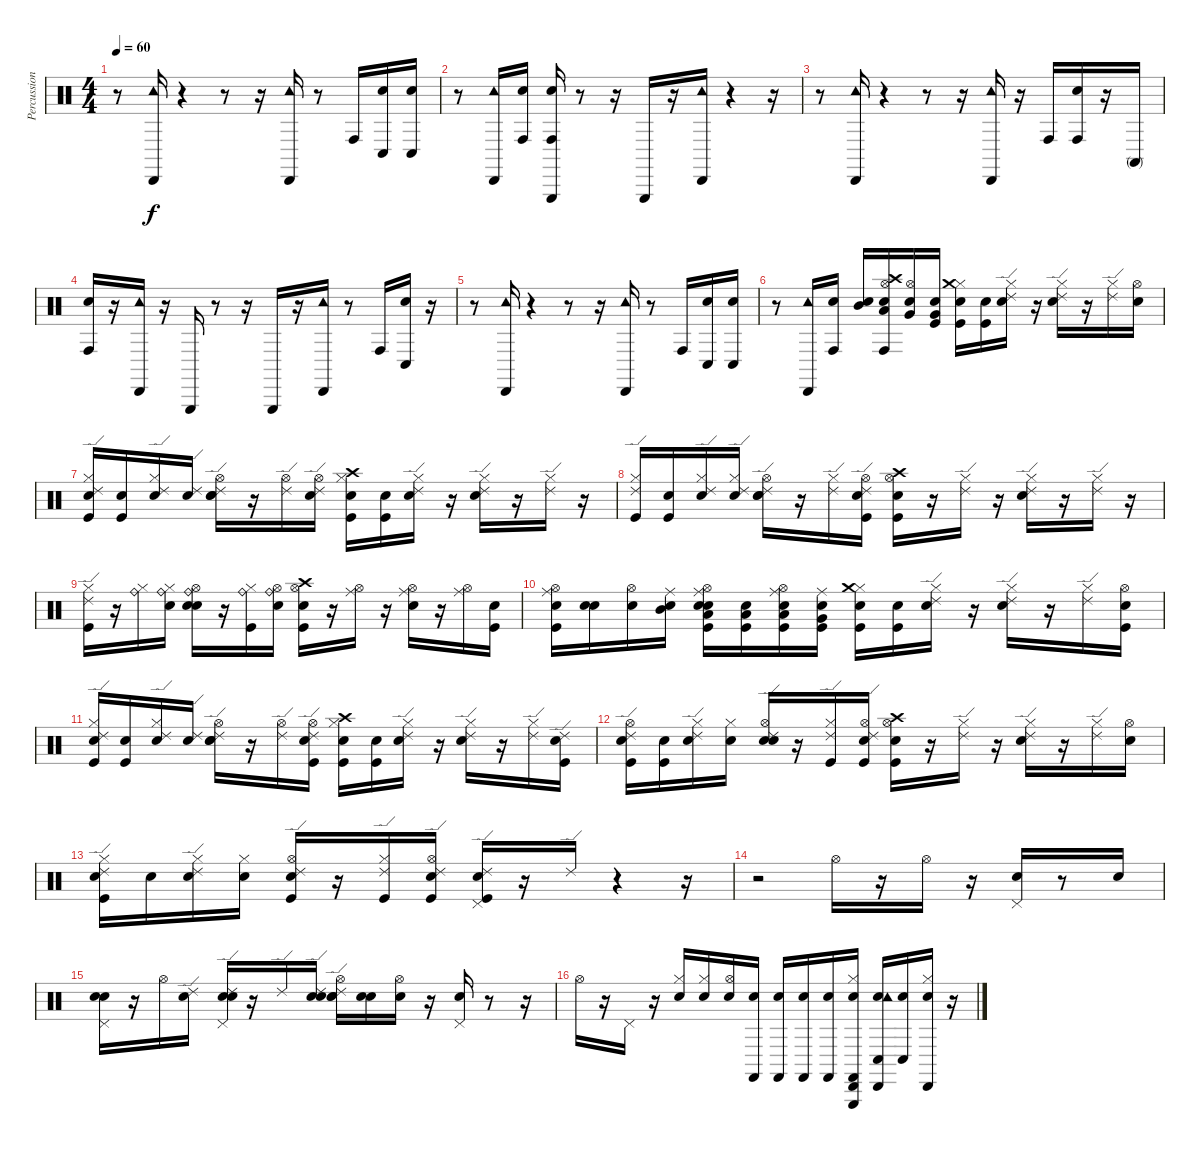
\track ("Percussions" "Percussion") {instrument percussion}
\staff {score}
\articulation defaults
\ts (4 4)
\tempo 60
\clef neutral
\ks c
r.8{dy f} ("Tambourine (hit)" "Cabasa (hit)").16 r.4 r.8 r.16 ("Tambourine (hit)" "Cabasa (hit)").16 r.8 "Conga high (hit)".16 ("Snare (hit)" "Conga low (hit)").16 ("Snare (hit)" "Conga low (hit)").16 |
r.8 ("Tambourine (hit)" "Cabasa (hit)").16 ("Snare (hit)" "Conga high (hit)").16 ("Snare (hit)" "Conga high (hit)" "Triangle (hit)").16 r.8 r.16 "Triangle (hit)".16 r.16 ("Tambourine (hit)" "Cabasa (hit)").16 r.4 r.16 |
r.8 ("Tambourine (hit)" "Cabasa (hit)").16 r.4 r.8 r.16 ("Tambourine (hit)" "Cabasa (hit)").16 r.16 "Conga high (hit)".16 ("Snare (hit)" "Conga high (hit)").16 r.16 "Conga high (mute)".16 |
("Snare (hit)" "Conga high (hit)").16 r.16 ("Tambourine (hit)" "Cabasa (hit)").16 r.16 "Triangle (hit)".16 r.8 r.16 "Triangle (hit)".16 r.16 ("Tambourine (hit)" "Cabasa (hit)").16 r.8 "Conga high (hit)".16 ("Snare (hit)" "Conga low (hit)").16 r.16 |
r.8 ("Tambourine (hit)" "Cabasa (hit)").16 r.4 r.8 r.16 ("Tambourine (hit)" "Cabasa (hit)").16 r.8 "Conga high (hit)".16 ("Snare (hit)" "Conga low (hit)").16 ("Snare (hit)" "Conga low (hit)").16 |
r.8 ("Tambourine (hit)" "Cabasa (hit)").16 ("Snare (hit)" "Conga high (hit)").16 ("Snare (hit)" "Mid Tom (hit)").16 ("Snare (hit)" "Low Tom (hit)" "Hi-Hat (open)" "Crash high (hit)" "Conga high (hit)").16 ("Snare (hit)" "Very Low Tom (hit)" "Hi-Hat (open)").16 ("Snare (hit)" "Kick (hit)" "Very Low Tom (hit)").16 ("Snare (hit)" "Kick (hit)" "Hi-Hat (closed)" "Crash medium (hit)").16 ("Snare (hit)" "Kick (hit)").16 ("Snare (hit)" "Hi-Hat (closed)" "Ride (edge) 2").16 r.16 ("Electric Snare (hit)" "Hi-Hat (closed)" "Ride (edge) 2").16 r.16 ("Hi-Hat (closed)" "Ride (edge) 2").16 ("Snare (hit)" "Hi-Hat (open)").16 |
("Snare (hit)" "Kick (hit)" "Hi-Hat (closed)" "Ride (edge) 2").16 ("Snare (hit)" "Kick (hit)").16 ("Snare (hit)" "Hi-Hat (closed)" "Ride (edge) 2").16 ("Snare (hit)" "Ride (edge) 2").16 ("Snare (hit)" "Electric Snare (hit)" "Hi-Hat (open)" "Ride (edge) 2").16 r.16 ("Hi-Hat (open)" "Ride (edge) 2").16 ("Snare (hit)" "Hi-Hat (open)" "Ride (edge) 2").16 ("Snare (hit)" "Kick (hit)" "Hi-Hat (closed)" "Crash high (hit)").16 ("Snare (hit)" "Kick (hit)").16 ("Snare (hit)" "Hi-Hat (closed)" "Ride (edge) 2").16 r.16 ("Electric Snare (hit)" "Hi-Hat (closed)" "Ride (edge) 2").16 r.16 ("Hi-Hat (closed)" "Ride (edge) 2").16 r.16 |
("Kick (hit)" "Hi-Hat (closed)" "Ride (edge) 2").16 ("Snare (hit)" "Kick (hit)").16 ("Snare (hit)" "Hi-Hat (closed)" "Ride (edge) 2").16 ("Snare (hit)" "Hi-Hat (closed)" "Ride (edge) 2").16 ("Snare (hit)" "Electric Snare (hit)" "Hi-Hat (open)" "Ride (edge) 2").16 r.16 ("Hi-Hat (closed)" "Ride (edge) 2").16 ("Snare (hit)" "Kick (hit)" "Hi-Hat (open)" "Ride (edge) 2").16 ("Snare (hit)" "Kick (hit)" "Hi-Hat (open)" "Crash high (hit)").16 r.16 ("Hi-Hat (closed)" "Ride (edge) 2").16 r.16 ("Electric Snare (hit)" "Hi-Hat (closed)" "Ride (edge) 2").16 r.16 ("Hi-Hat (closed)" "Ride (edge) 2").16 r.16 |
("Kick (hit)" "Hi-Hat (closed)" "Ride (edge) 2").16 r.16 ("Hi-Hat (closed)" "Ride (bell)").16 ("Snare (hit)" "Hi-Hat (closed)" "Ride (bell)").16 ("Snare (hit)" "Electric Snare (hit)" "Hi-Hat (open)" "Ride (bell)").16 r.16 ("Kick (hit)" "Hi-Hat (closed)" "Ride (bell)").16 ("Snare (hit)" "Hi-Hat (open)" "Ride (bell)").16 ("Snare (hit)" "Kick (hit)" "Hi-Hat (open)" "Crash high (hit)").16 r.16 ("Hi-Hat (open)" "Ride (middle)").16 r.16 ("Electric Snare (hit)" "Hi-Hat (open)" "Ride (middle)").16 r.16 ("Hi-Hat (open)" "Ride (middle)").16 ("Snare (hit)" "Kick (hit)").16 |
("Snare (hit)" "Kick (hit)" "Hi-Hat (open)" "Ride (middle)").16 ("Snare (hit)" "Electric Snare (hit)").16 ("Snare (hit)" "Hi-Hat (open)").16 ("Snare (hit)" "Mid Tom (hit)" "Ride (middle)").16 ("Snare (hit)" "Kick (hit)" "Electric Snare (hit)" "Low Tom (hit)" "Hi-Hat (open)" "Ride (middle)").16 ("Snare (hit)" "Kick (hit)" "Low Tom (hit)").16 ("Snare (hit)" "Kick (hit)" "Low Tom (hit)" "Hi-Hat (open)" "Ride (middle)").16 ("Snare (hit)" "Kick (hit)" "Very Low Tom (hit)" "Ride (middle)").16 ("Snare (hit)" "Kick (hit)" "Hi-Hat (closed)" "Crash medium (hit)").16 ("Snare (hit)" "Kick (hit)").16 ("Snare (hit)" "Hi-Hat (closed)" "Ride (edge) 2").16 r.16 ("Electric Snare (hit)" "Hi-Hat (closed)" "Ride (edge) 2").16 r.16 ("Hi-Hat (closed)" "Ride (edge) 2").16 ("Snare (hit)" "Kick (hit)" "Hi-Hat (open)").16 |
("Snare (hit)" "Kick (hit)" "Hi-Hat (closed)" "Ride (edge) 2").16 ("Snare (hit)" "Kick (hit)").16 ("Snare (hit)" "Hi-Hat (closed)" "Ride (edge) 2").16 ("Snare (hit)" "Ride (edge) 2").16 ("Snare (hit)" "Electric Snare (hit)" "Hi-Hat (open)" "Ride (edge) 2").16 r.16 ("Hi-Hat (open)" "Ride (edge) 2").16 ("Snare (hit)" "Kick (hit)" "Hi-Hat (open)" "Ride (edge) 2").16 ("Snare (hit)" "Kick (hit)" "Hi-Hat (closed)" "Crash high (hit)").16 ("Snare (hit)" "Kick (hit)").16 ("Snare (hit)" "Hi-Hat (closed)" "Ride (edge) 2").16 r.16 ("Electric Snare (hit)" "Hi-Hat (closed)" "Ride (edge) 2").16 r.16 ("Hi-Hat (closed)" "Ride (edge) 2").16 ("Snare (hit)" "Kick (hit)" "Ride (edge) 2").16 |
("Snare (hit)" "Kick (hit)" "Hi-Hat (open)" "Ride (edge) 2").16 ("Snare (hit)" "Kick (hit)").16 ("Snare (hit)" "Hi-Hat (closed)" "Ride (edge) 2").16 ("Snare (hit)" "Hi-Hat (closed)").16 ("Snare (hit)" "Electric Snare (hit)" "Hi-Hat (open)" "Ride (edge) 2").16 r.16 ("Kick (hit)" "Hi-Hat (closed)" "Ride (edge) 2").16 ("Snare (hit)" "Kick (hit)" "Hi-Hat (open)" "Ride (edge) 2").16 ("Snare (hit)" "Kick (hit)" "Hi-Hat (open)" "Crash high (hit)").16 r.16 ("Hi-Hat (closed)" "Ride (edge) 2").16 r.16 ("Electric Snare (hit)" "Hi-Hat (closed)" "Ride (edge) 2").16 r.16 ("Hi-Hat (closed)" "Ride (edge) 2").16 ("Snare (hit)" "Hi-Hat (open)").16 |
("Snare (hit)" "Kick (hit)" "Hi-Hat (closed)" "Ride (edge) 2").16 "Snare (hit)".16 ("Snare (hit)" "Hi-Hat (closed)" "Ride (edge) 2").16 ("Snare (hit)" "Hi-Hat (closed)").16 ("Snare (hit)" "Kick (hit)" "Hi-Hat (open)" "Ride (edge) 2").16 r.16 ("Kick (hit)" "Hi-Hat (closed)" "Ride (edge) 2").16 ("Snare (hit)" "Kick (hit)" "Hi-Hat (open)" "Ride (edge) 2").16 ("Snare (hit)" "Kick (hit)" "Pedal Hi-Hat (hit)" "Ride (edge) 2").16 r.16 "Ride (edge) 2".16 r.4 r.16 |
r.2 "Hi-Hat (open)".16 r.16 "Hi-Hat (open)".16 r.16 ("Snare (hit) 2" "Pedal Hi-Hat (hit)").16 r.8 "Snare (hit) 2".16 |
("Snare (hit)" "Snare (hit) 2" "Pedal Hi-Hat (hit)").16 r.16 "Hi-Hat (open)".16 ("Snare (hit)" "Ride (edge) 2").16 ("Snare (hit)" "Snare (hit) 2" "Pedal Hi-Hat (hit)" "Ride (edge) 2").16 r.16 "Ride (edge) 2".16 ("Snare (hit)" "Snare (hit) 2" "Ride (edge) 2").16 ("Snare (hit)" "Snare (hit) 2" "Hi-Hat (open)" "Ride (edge) 2").16 ("Snare (hit)" "Snare (hit) 2").16 ("Snare (hit)" "Hi-Hat (open)").16 r.16 ("Snare (hit) 2" "Pedal Hi-Hat (hit)").16 r.8 r.16 |
"Hi-Hat (open)".16 r.16 "Pedal Hi-Hat (hit)".16 r.16 ("Snare (hit) 2" "Hi-Hat (closed)").16 ("Snare (hit)" "Hi-Hat (closed)").16 ("Snare (hit)" "Hi-Hat (open)").16 ("Snare (hit)" "Castanets (hit)").16 ("Snare (hit)" "Castanets (hit)").16 ("Snare (hit)" "Castanets (hit)").16 ("Snare (hit)" "Castanets (hit)").16 ("Snare (hit)" "Hi-Hat (closed)" "Castanets (hit)" "Triangle (hit)" "Cabasa (hit)").16 ("Snare (hit)" "Tambourine (hit)" "Conga low (hit)" "Cabasa (hit)").16 ("Snare (hit)" "Conga low (hit)").16 ("Snare (hit)" "Hi-Hat (closed)" "Cabasa (hit)").16 r.16
